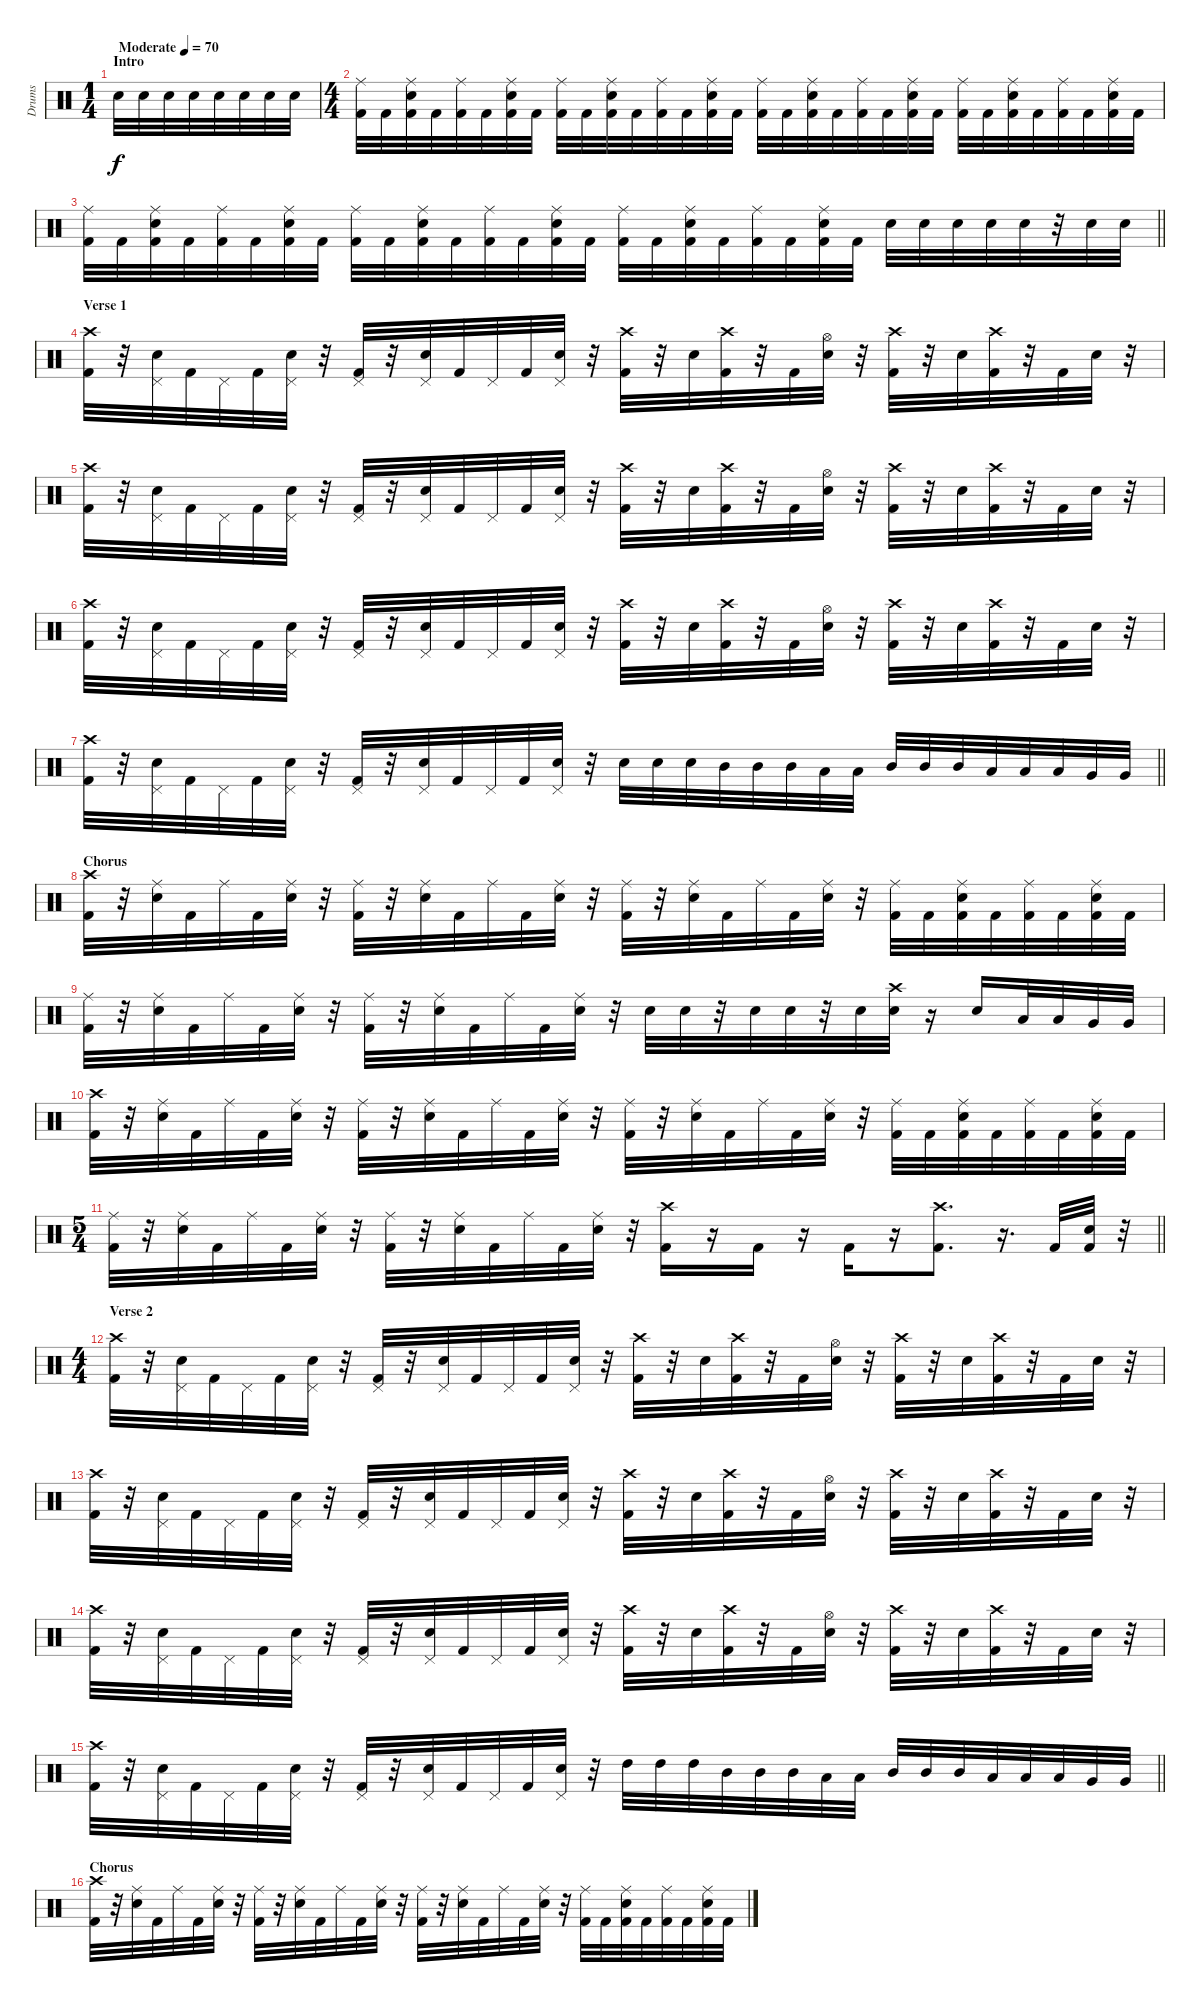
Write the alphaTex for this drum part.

\track ("Drums" "Drums") {instrument percussion}
\staff {score}
\articulation defaults
\ts (1 4)
\section ("" "Intro")
\tempo (70 "Moderate")
\clef neutral
\ks c "Snare (hit) 2".32{dy f} "Snare (hit) 2".32 "Snare (hit) 2".32 "Snare (hit) 2".32 "Snare (hit) 2".32 "Snare (hit) 2".32 "Snare (hit) 2".32 "Snare (hit) 2".32
|
\ts (4 4)
("Ride (middle)" "Kick (hit) 2").32 "Kick (hit) 2".32 ("Ride (middle)" "Snare (hit) 2" "Kick (hit) 2").32 "Kick (hit) 2".32 ("Ride (middle)" "Kick (hit) 2").32 "Kick (hit) 2".32 ("Ride (middle)" "Snare (hit) 2" "Kick (hit) 2").32 "Kick (hit) 2".32 ("Ride (middle)" "Kick (hit) 2").32 "Kick (hit) 2".32 ("Ride (middle)" "Snare (hit) 2" "Kick (hit) 2").32 "Kick (hit) 2".32 ("Ride (middle)" "Kick (hit) 2").32 "Kick (hit) 2".32 ("Ride (middle)" "Snare (hit) 2" "Kick (hit) 2").32 "Kick (hit) 2".32 ("Ride (middle)" "Kick (hit) 2").32 "Kick (hit) 2".32 ("Ride (middle)" "Snare (hit) 2" "Kick (hit) 2").32 "Kick (hit) 2".32 ("Ride (middle)" "Kick (hit) 2").32 "Kick (hit) 2".32 ("Ride (middle)" "Snare (hit) 2" "Kick (hit) 2").32 "Kick (hit) 2".32 ("Ride (middle)" "Kick (hit) 2").32 "Kick (hit) 2".32 ("Ride (middle)" "Snare (hit) 2" "Kick (hit) 2").32 "Kick (hit) 2".32 ("Ride (middle)" "Kick (hit) 2").32 "Kick (hit) 2".32 ("Ride (middle)" "Snare (hit) 2" "Kick (hit) 2").32 "Kick (hit) 2".32 |
\barLineRight lightlight
("Ride (middle)" "Kick (hit) 2").32 "Kick (hit) 2".32 ("Ride (middle)" "Snare (hit) 2" "Kick (hit) 2").32 "Kick (hit) 2".32 ("Ride (middle)" "Kick (hit) 2").32 "Kick (hit) 2".32 ("Ride (middle)" "Snare (hit) 2" "Kick (hit) 2").32 "Kick (hit) 2".32 ("Ride (middle)" "Kick (hit) 2").32 "Kick (hit) 2".32 ("Ride (middle)" "Snare (hit) 2" "Kick (hit) 2").32 "Kick (hit) 2".32 ("Ride (middle)" "Kick (hit) 2").32 "Kick (hit) 2".32 ("Ride (middle)" "Snare (hit) 2" "Kick (hit) 2").32 "Kick (hit) 2".32 ("Ride (middle)" "Kick (hit) 2").32 "Kick (hit) 2".32 ("Ride (middle)" "Snare (hit) 2" "Kick (hit) 2").32 "Kick (hit) 2".32 ("Ride (middle)" "Kick (hit) 2").32 "Kick (hit) 2".32 ("Ride (middle)" "Snare (hit) 2" "Kick (hit) 2").32 "Kick (hit) 2".32 "Snare (hit) 2".32 "Snare (hit) 2".32 "Snare (hit) 2".32 "Snare (hit) 2".32 "Snare (hit) 2".32 r.32 "Snare (hit) 2".32 "Snare (hit) 2".32 |
\section ("" "Verse 1")
("Crash high (hit)" "Kick (hit) 2").32 r.32 ("Pedal Hi-Hat (hit)" "Snare (hit) 2").32 "Kick (hit) 2".32 "Pedal Hi-Hat (hit)".32 "Kick (hit) 2".32 ("Pedal Hi-Hat (hit)" "Snare (hit) 2").32 r.32 ("Pedal Hi-Hat (hit)" "Kick (hit) 2").32 r.32 ("Pedal Hi-Hat (hit)" "Snare (hit) 2").32 "Kick (hit) 2".32 "Pedal Hi-Hat (hit)".32 "Kick (hit) 2".32 ("Pedal Hi-Hat (hit)" "Snare (hit) 2").32 r.32 ("Crash high (hit)" "Kick (hit) 2").32 r.32 "Snare (hit) 2".32 ("Crash high (hit)" "Kick (hit) 2").32 r.32 "Kick (hit) 2".32 ("Hi-Hat (open)" "Snare (hit) 2").32 r.32 ("Crash high (hit)" "Kick (hit) 2").32 r.32 "Snare (hit) 2".32 ("Crash high (hit)" "Kick (hit) 2").32 r.32 "Kick (hit) 2".32 "Snare (hit) 2".32 r.32 |
("Crash high (hit)" "Kick (hit) 2").32 r.32 ("Pedal Hi-Hat (hit)" "Snare (hit) 2").32 "Kick (hit) 2".32 "Pedal Hi-Hat (hit)".32 "Kick (hit) 2".32 ("Pedal Hi-Hat (hit)" "Snare (hit) 2").32 r.32 ("Pedal Hi-Hat (hit)" "Kick (hit) 2").32 r.32 ("Pedal Hi-Hat (hit)" "Snare (hit) 2").32 "Kick (hit) 2".32 "Pedal Hi-Hat (hit)".32 "Kick (hit) 2".32 ("Pedal Hi-Hat (hit)" "Snare (hit) 2").32 r.32 ("Crash high (hit)" "Kick (hit) 2").32 r.32 "Snare (hit) 2".32 ("Crash high (hit)" "Kick (hit) 2").32 r.32 "Kick (hit) 2".32 ("Hi-Hat (open)" "Snare (hit) 2").32 r.32 ("Crash high (hit)" "Kick (hit) 2").32 r.32 "Snare (hit) 2".32 ("Crash high (hit)" "Kick (hit) 2").32 r.32 "Kick (hit) 2".32 "Snare (hit) 2".32 r.32 |
("Crash high (hit)" "Kick (hit) 2").32 r.32 ("Pedal Hi-Hat (hit)" "Snare (hit) 2").32 "Kick (hit) 2".32 "Pedal Hi-Hat (hit)".32 "Kick (hit) 2".32 ("Pedal Hi-Hat (hit)" "Snare (hit) 2").32 r.32 ("Pedal Hi-Hat (hit)" "Kick (hit) 2").32 r.32 ("Pedal Hi-Hat (hit)" "Snare (hit) 2").32 "Kick (hit) 2".32 "Pedal Hi-Hat (hit)".32 "Kick (hit) 2".32 ("Pedal Hi-Hat (hit)" "Snare (hit) 2").32 r.32 ("Crash high (hit)" "Kick (hit) 2").32 r.32 "Snare (hit) 2".32 ("Crash high (hit)" "Kick (hit) 2").32 r.32 "Kick (hit) 2".32 ("Hi-Hat (open)" "Snare (hit) 2").32 r.32 ("Crash high (hit)" "Kick (hit) 2").32 r.32 "Snare (hit) 2".32 ("Crash high (hit)" "Kick (hit) 2").32 r.32 "Kick (hit) 2".32 "Snare (hit) 2".32 r.32 |
\barLineRight lightlight
("Crash high (hit)" "Kick (hit) 2").32 r.32 ("Pedal Hi-Hat (hit)" "Snare (hit) 2").32 "Kick (hit) 2".32 "Pedal Hi-Hat (hit)".32 "Kick (hit) 2".32 ("Pedal Hi-Hat (hit)" "Snare (hit) 2").32 r.32 ("Pedal Hi-Hat (hit)" "Kick (hit) 2").32 r.32 ("Pedal Hi-Hat (hit)" "Snare (hit) 2").32 "Kick (hit) 2".32 "Pedal Hi-Hat (hit)".32 "Kick (hit) 2".32 ("Pedal Hi-Hat (hit)" "Snare (hit) 2").32 r.32 "Snare (hit) 2".32 "Snare (hit) 2".32 "Snare (hit) 2".32 "Mid Tom (hit)".32 "Mid Tom (hit)".32 "Mid Tom (hit)".32 "Low Tom (hit)".32 "Low Tom (hit)".32 "Mid Tom (hit)".32 "Mid Tom (hit)".32 "Mid Tom (hit)".32 "Low Tom (hit)".32 "Low Tom (hit)".32 "Low Tom (hit)".32 "Very Low Tom (hit)".32 "Very Low Tom (hit)".32 |
\section ("" "Chorus")
("Crash high (hit)" "Kick (hit) 2").32 r.32 ("Ride (middle)" "Snare (hit) 2").32 "Kick (hit) 2".32 "Ride (middle)".32 "Kick (hit) 2".32 ("Ride (middle)" "Snare (hit) 2").32 r.32 ("Ride (middle)" "Kick (hit) 2").32 r.32 ("Ride (middle)" "Snare (hit) 2").32 "Kick (hit) 2".32 "Ride (middle)".32 "Kick (hit) 2".32 ("Ride (middle)" "Snare (hit) 2").32 r.32 ("Ride (middle)" "Kick (hit) 2").32 r.32 ("Ride (middle)" "Snare (hit) 2").32 "Kick (hit) 2".32 "Ride (middle)".32 "Kick (hit) 2".32 ("Ride (middle)" "Snare (hit) 2").32 r.32 ("Ride (middle)" "Kick (hit) 2").32 "Kick (hit) 2".32 ("Ride (middle)" "Snare (hit) 2" "Kick (hit) 2").32 "Kick (hit) 2".32 ("Ride (middle)" "Kick (hit) 2").32 "Kick (hit) 2".32 ("Ride (middle)" "Snare (hit) 2" "Kick (hit) 2").32 "Kick (hit) 2".32 |
("Ride (middle)" "Kick (hit) 2").32 r.32 ("Ride (middle)" "Snare (hit) 2").32 "Kick (hit) 2".32 "Ride (middle)".32 "Kick (hit) 2".32 ("Ride (middle)" "Snare (hit) 2").32 r.32 ("Ride (middle)" "Kick (hit) 2").32 r.32 ("Ride (middle)" "Snare (hit) 2").32 "Kick (hit) 2".32 "Ride (middle)".32 "Kick (hit) 2".32 ("Ride (middle)" "Snare (hit) 2").32 r.32 "Snare (hit) 2".32 "Snare (hit) 2".32 r.32 "Snare (hit) 2".32 "Snare (hit) 2".32 r.32 "Snare (hit) 2".32 ("Crash high (hit)" "Snare (hit) 2").32 r.16 "Snare (hit) 2".16 "Low Tom (hit)".32 "Low Tom (hit)".32 "Very Low Tom (hit)".32 "Very Low Tom (hit)".32 |
("Crash high (hit)" "Kick (hit) 2").32 r.32 ("Ride (middle)" "Snare (hit) 2").32 "Kick (hit) 2".32 "Ride (middle)".32 "Kick (hit) 2".32 ("Ride (middle)" "Snare (hit) 2").32 r.32 ("Ride (middle)" "Kick (hit) 2").32 r.32 ("Ride (middle)" "Snare (hit) 2").32 "Kick (hit) 2".32 "Ride (middle)".32 "Kick (hit) 2".32 ("Ride (middle)" "Snare (hit) 2").32 r.32 ("Ride (middle)" "Kick (hit) 2").32 r.32 ("Ride (middle)" "Snare (hit) 2").32 "Kick (hit) 2".32 "Ride (middle)".32 "Kick (hit) 2".32 ("Ride (middle)" "Snare (hit) 2").32 r.32 ("Ride (middle)" "Kick (hit) 2").32 "Kick (hit) 2".32 ("Ride (middle)" "Snare (hit) 2" "Kick (hit) 2").32 "Kick (hit) 2".32 ("Ride (middle)" "Kick (hit) 2").32 "Kick (hit) 2".32 ("Ride (middle)" "Snare (hit) 2" "Kick (hit) 2").32 "Kick (hit) 2".32 |
\ts (5 4)
\barLineRight lightlight
("Ride (middle)" "Kick (hit) 2").32 r.32 ("Ride (middle)" "Snare (hit) 2").32 "Kick (hit) 2".32 "Ride (middle)".32 "Kick (hit) 2".32 ("Ride (middle)" "Snare (hit) 2").32 r.32 ("Ride (middle)" "Kick (hit) 2").32 r.32 ("Ride (middle)" "Snare (hit) 2").32 "Kick (hit) 2".32 "Ride (middle)".32 "Kick (hit) 2".32 ("Ride (middle)" "Snare (hit) 2").32 r.32 ("Crash high (hit)" "Kick (hit) 2").16 r.16 "Kick (hit) 2".16 r.16 "Kick (hit) 2".16 r.16 ("Crash high (hit)" "Kick (hit) 2").8{d} r.16{d} "Kick (hit) 2".32 ("Snare (hit) 2" "Kick (hit) 2").32 r.32 |
\ts (4 4)
\section ("" "Verse 2")
("Crash high (hit)" "Kick (hit) 2").32 r.32 ("Pedal Hi-Hat (hit)" "Snare (hit) 2").32 "Kick (hit) 2".32 "Pedal Hi-Hat (hit)".32 "Kick (hit) 2".32 ("Pedal Hi-Hat (hit)" "Snare (hit) 2").32 r.32 ("Pedal Hi-Hat (hit)" "Kick (hit) 2").32 r.32 ("Pedal Hi-Hat (hit)" "Snare (hit) 2").32 "Kick (hit) 2".32 "Pedal Hi-Hat (hit)".32 "Kick (hit) 2".32 ("Pedal Hi-Hat (hit)" "Snare (hit) 2").32 r.32 ("Crash high (hit)" "Kick (hit) 2").32 r.32 "Snare (hit) 2".32 ("Crash high (hit)" "Kick (hit) 2").32 r.32 "Kick (hit) 2".32 ("Hi-Hat (open)" "Snare (hit) 2").32 r.32 ("Crash high (hit)" "Kick (hit) 2").32 r.32 "Snare (hit) 2".32 ("Crash high (hit)" "Kick (hit) 2").32 r.32 "Kick (hit) 2".32 "Snare (hit) 2".32 r.32 |
("Crash high (hit)" "Kick (hit) 2").32 r.32 ("Pedal Hi-Hat (hit)" "Snare (hit) 2").32 "Kick (hit) 2".32 "Pedal Hi-Hat (hit)".32 "Kick (hit) 2".32 ("Pedal Hi-Hat (hit)" "Snare (hit) 2").32 r.32 ("Pedal Hi-Hat (hit)" "Kick (hit) 2").32 r.32 ("Pedal Hi-Hat (hit)" "Snare (hit) 2").32 "Kick (hit) 2".32 "Pedal Hi-Hat (hit)".32 "Kick (hit) 2".32 ("Pedal Hi-Hat (hit)" "Snare (hit) 2").32 r.32 ("Crash high (hit)" "Kick (hit) 2").32 r.32 "Snare (hit) 2".32 ("Crash high (hit)" "Kick (hit) 2").32 r.32 "Kick (hit) 2".32 ("Hi-Hat (open)" "Snare (hit) 2").32 r.32 ("Crash high (hit)" "Kick (hit) 2").32 r.32 "Snare (hit) 2".32 ("Crash high (hit)" "Kick (hit) 2").32 r.32 "Kick (hit) 2".32 "Snare (hit) 2".32 r.32 |
("Crash high (hit)" "Kick (hit) 2").32 r.32 ("Pedal Hi-Hat (hit)" "Snare (hit) 2").32 "Kick (hit) 2".32 "Pedal Hi-Hat (hit)".32 "Kick (hit) 2".32 ("Pedal Hi-Hat (hit)" "Snare (hit) 2").32 r.32 ("Pedal Hi-Hat (hit)" "Kick (hit) 2").32 r.32 ("Pedal Hi-Hat (hit)" "Snare (hit) 2").32 "Kick (hit) 2".32 "Pedal Hi-Hat (hit)".32 "Kick (hit) 2".32 ("Pedal Hi-Hat (hit)" "Snare (hit) 2").32 r.32 ("Crash high (hit)" "Kick (hit) 2").32 r.32 "Snare (hit) 2".32 ("Crash high (hit)" "Kick (hit) 2").32 r.32 "Kick (hit) 2".32 ("Hi-Hat (open)" "Snare (hit) 2").32 r.32 ("Crash high (hit)" "Kick (hit) 2").32 r.32 "Snare (hit) 2".32 ("Crash high (hit)" "Kick (hit) 2").32 r.32 "Kick (hit) 2".32 "Snare (hit) 2".32 r.32 |
\barLineRight lightlight
("Crash high (hit)" "Kick (hit) 2").32 r.32 ("Pedal Hi-Hat (hit)" "Snare (hit) 2").32 "Kick (hit) 2".32 "Pedal Hi-Hat (hit)".32 "Kick (hit) 2".32 ("Pedal Hi-Hat (hit)" "Snare (hit) 2").32 r.32 ("Pedal Hi-Hat (hit)" "Kick (hit) 2").32 r.32 ("Pedal Hi-Hat (hit)" "Snare (hit) 2").32 "Kick (hit) 2".32 "Pedal Hi-Hat (hit)".32 "Kick (hit) 2".32 ("Pedal Hi-Hat (hit)" "Snare (hit) 2").32 r.32 "High Tom (hit)".32 "High Tom (hit)".32 "High Tom (hit)".32 "Mid Tom (hit)".32 "Mid Tom (hit)".32 "Mid Tom (hit)".32 "Low Tom (hit)".32 "Low Tom (hit)".32 "Mid Tom (hit)".32 "Mid Tom (hit)".32 "Mid Tom (hit)".32 "Low Tom (hit)".32 "Low Tom (hit)".32 "Low Tom (hit)".32 "Very Low Tom (hit)".32 "Very Low Tom (hit)".32 |
\section ("" "Chorus")
("Crash high (hit)" "Kick (hit) 2").32 r.32 ("Ride (middle)" "Snare (hit) 2").32 "Kick (hit) 2".32 "Ride (middle)".32 "Kick (hit) 2".32 ("Ride (middle)" "Snare (hit) 2").32 r.32 ("Ride (middle)" "Kick (hit) 2").32 r.32 ("Ride (middle)" "Snare (hit) 2").32 "Kick (hit) 2".32 "Ride (middle)".32 "Kick (hit) 2".32 ("Ride (middle)" "Snare (hit) 2").32 r.32 ("Ride (middle)" "Kick (hit) 2").32 r.32 ("Ride (middle)" "Snare (hit) 2").32 "Kick (hit) 2".32 "Ride (middle)".32 "Kick (hit) 2".32 ("Ride (middle)" "Snare (hit) 2").32 r.32 ("Ride (middle)" "Kick (hit) 2").32 "Kick (hit) 2".32 ("Ride (middle)" "Snare (hit) 2" "Kick (hit) 2").32 "Kick (hit) 2".32 ("Ride (middle)" "Kick (hit) 2").32 "Kick (hit) 2".32 ("Ride (middle)" "Snare (hit) 2" "Kick (hit) 2").32 "Kick (hit) 2".32
